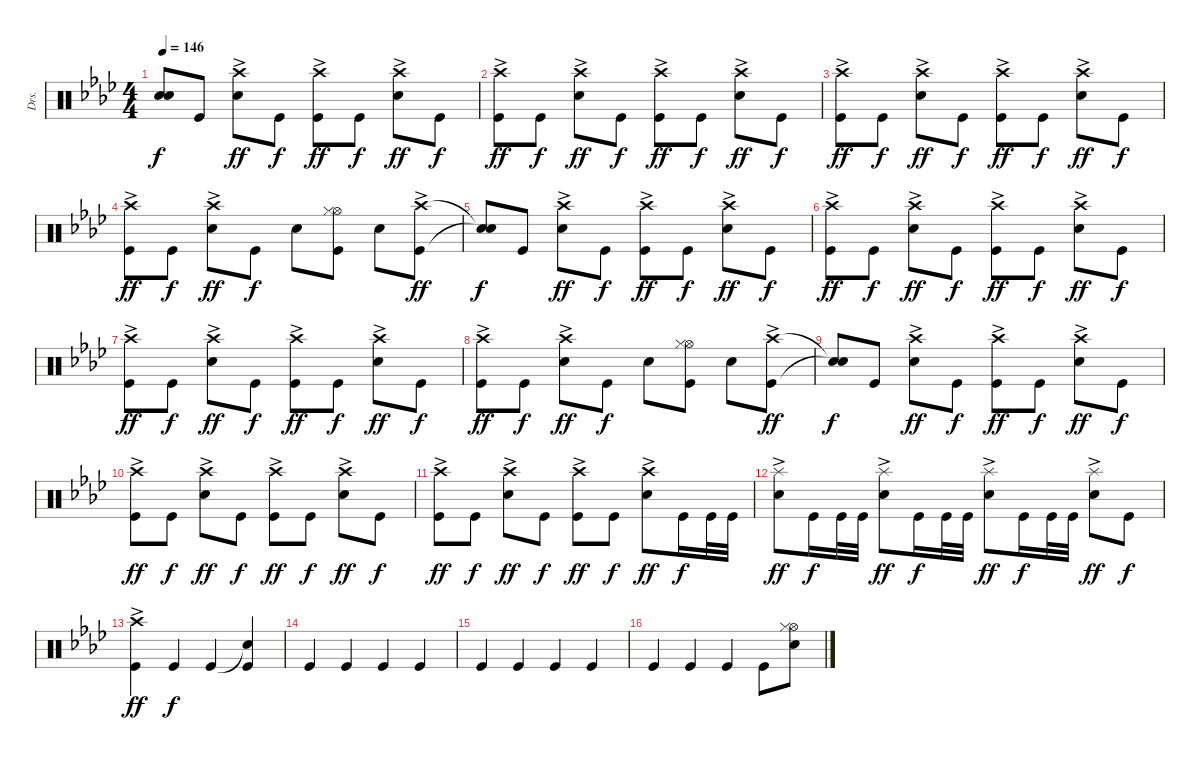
\track ("Drs." "Drs.") {instrument percussion}
\staff {score}
\articulation defaults
\ts (4 4)
\tempo 146
\clef neutral
\ks ab
("Snare (hit)"{t} "Snare (hit)"{t}).8{dy f} "Kick (hit)".8 ("Crash high (hit)"{ac} "Snare (hit) 2").8{dy ff} "Kick (hit)".8{dy f} ("Crash high (hit)"{ac} "Kick (hit)").8{dy ff} "Kick (hit)".8{dy f} ("Crash high (hit)"{ac} "Snare (hit) 2").8{dy ff} "Kick (hit)".8{dy f} |
("Crash high (hit)"{ac} "Kick (hit)").8{dy ff} "Kick (hit)".8{dy f} ("Crash high (hit)"{ac} "Snare (hit) 2").8{dy ff} "Kick (hit)".8{dy f} ("Crash high (hit)"{ac} "Kick (hit)").8{dy ff} "Kick (hit)".8{dy f} ("Crash high (hit)"{ac} "Snare (hit) 2").8{dy ff} "Kick (hit)".8{dy f} |
("Crash high (hit)"{ac} "Kick (hit)").8{dy ff} "Kick (hit)".8{dy f} ("Crash high (hit)"{ac} "Snare (hit) 2").8{dy ff} "Kick (hit)".8{dy f} ("Crash high (hit)"{ac} "Kick (hit)").8{dy ff} "Kick (hit)".8{dy f} ("Crash high (hit)"{ac} "Snare (hit) 2").8{dy ff} "Kick (hit)".8{dy f} |
("Crash high (hit)"{ac} "Kick (hit)").8{dy ff} "Kick (hit)".8{dy f} ("Crash high (hit)"{ac} "Snare (hit) 2").8{dy ff} "Kick (hit)".8{dy f} "Snare (hit) 2".8 ("Hi-Hat (open)" "Hi-Hat (closed)" "Kick (hit)").8 "Snare (hit) 2".8 ("Crash high (hit)"{ac} "Kick (hit)").8{dy ff} |
("Snare (hit)"{t} "Snare (hit)"{t}).8{dy f} "Kick (hit)".8 ("Crash high (hit)"{ac} "Snare (hit) 2").8{dy ff} "Kick (hit)".8{dy f} ("Crash high (hit)"{ac} "Kick (hit)").8{dy ff} "Kick (hit)".8{dy f} ("Crash high (hit)"{ac} "Snare (hit) 2").8{dy ff} "Kick (hit)".8{dy f} |
("Crash high (hit)"{ac} "Kick (hit)").8{dy ff} "Kick (hit)".8{dy f} ("Crash high (hit)"{ac} "Snare (hit) 2").8{dy ff} "Kick (hit)".8{dy f} ("Crash high (hit)"{ac} "Kick (hit)").8{dy ff} "Kick (hit)".8{dy f} ("Crash high (hit)"{ac} "Snare (hit) 2").8{dy ff} "Kick (hit)".8{dy f} |
("Crash high (hit)"{ac} "Kick (hit)").8{dy ff} "Kick (hit)".8{dy f} ("Crash high (hit)"{ac} "Snare (hit) 2").8{dy ff} "Kick (hit)".8{dy f} ("Crash high (hit)"{ac} "Kick (hit)").8{dy ff} "Kick (hit)".8{dy f} ("Crash high (hit)"{ac} "Snare (hit) 2").8{dy ff} "Kick (hit)".8{dy f} |
("Crash high (hit)"{ac} "Kick (hit)").8{dy ff} "Kick (hit)".8{dy f} ("Crash high (hit)"{ac} "Snare (hit) 2").8{dy ff} "Kick (hit)".8{dy f} "Snare (hit) 2".8 ("Hi-Hat (open)" "Hi-Hat (closed)" "Kick (hit)").8 "Snare (hit) 2".8 ("Crash high (hit)"{ac} "Kick (hit)").8{dy ff} |
("Snare (hit)"{t} "Snare (hit)"{t}).8{dy f} "Kick (hit)".8 ("Crash high (hit)"{ac} "Snare (hit) 2").8{dy ff} "Kick (hit)".8{dy f} ("Crash high (hit)"{ac} "Kick (hit)").8{dy ff} "Kick (hit)".8{dy f} ("Crash high (hit)"{ac} "Snare (hit) 2").8{dy ff} "Kick (hit)".8{dy f} |
("Crash high (hit)"{ac} "Kick (hit)").8{dy ff} "Kick (hit)".8{dy f} ("Crash high (hit)"{ac} "Snare (hit) 2").8{dy ff} "Kick (hit)".8{dy f} ("Crash high (hit)"{ac} "Kick (hit)").8{dy ff} "Kick (hit)".8{dy f} ("Crash high (hit)"{ac} "Snare (hit) 2").8{dy ff} "Kick (hit)".8{dy f} |
("Crash high (hit)"{ac} "Kick (hit)").8{dy ff} "Kick (hit)".8{dy f} ("Crash high (hit)"{ac} "Snare (hit) 2").8{dy ff} "Kick (hit)".8{dy f} ("Crash high (hit)"{ac} "Kick (hit)").8{dy ff} "Kick (hit)".8{dy f} ("Crash high (hit)"{ac} "Snare (hit) 2").8{dy ff} "Kick (hit)".16{dy f} "Kick (hit)".32 "Kick (hit)".32 |
("Splash (hit)"{ac} "Snare (hit) 2").8{dy ff} "Kick (hit)".16{dy f} "Kick (hit)".32 "Kick (hit)".32 ("Splash (hit)"{ac} "Snare (hit) 2").8{dy ff} "Kick (hit)".16{dy f} "Kick (hit)".32 "Kick (hit)".32 ("Splash (hit)"{ac} "Snare (hit) 2").8{dy ff} "Kick (hit)".16{dy f} "Kick (hit)".32 "Kick (hit)".32 ("Splash (hit)"{ac} "Snare (hit) 2").8{dy ff} "Kick (hit)".8{dy f} |
("Crash high (hit)"{ac} "Kick (hit)").4{dy ff} "Kick (hit)".4{dy f} "Kick (hit)".4 ("Snare (hit)"{t} "Kick (hit)").4 |
"Kick (hit)".4 "Kick (hit)".4 "Kick (hit)".4 "Kick (hit)".4 |
"Kick (hit)".4 "Kick (hit)".4 "Kick (hit)".4 "Kick (hit)".4 |
"Kick (hit)".4 "Kick (hit)".4 "Kick (hit)".4 "Kick (hit)".8 ("Hi-Hat (open)" "Hi-Hat (closed)" "Snare (hit) 2").8
